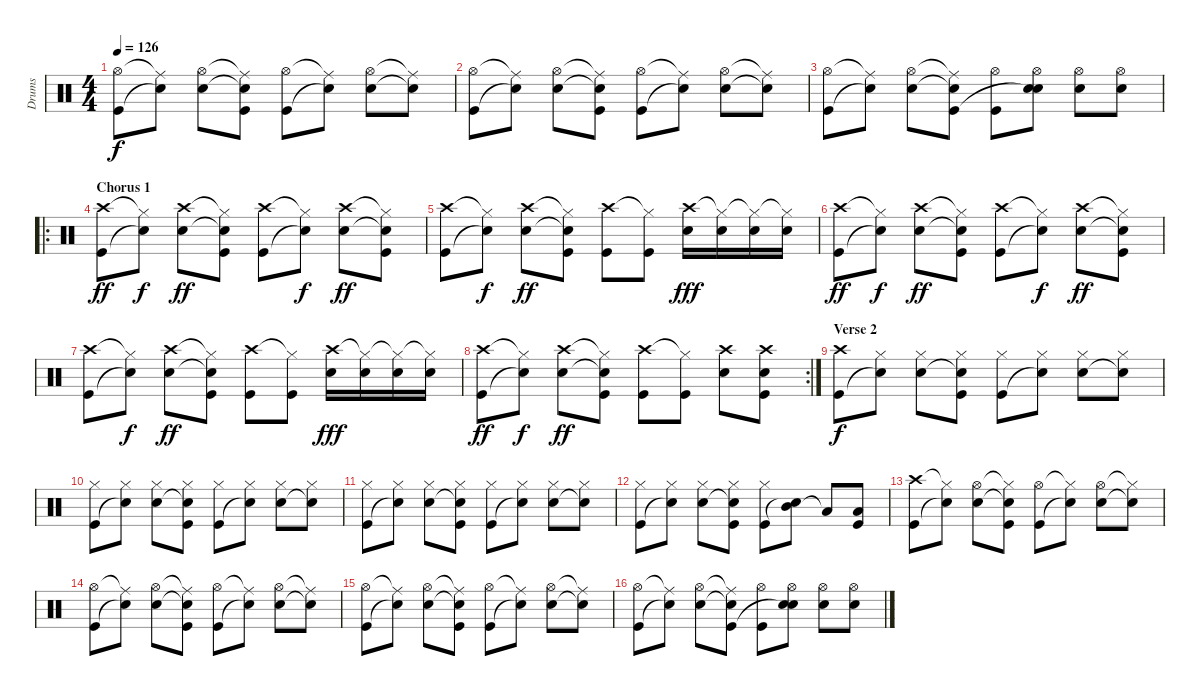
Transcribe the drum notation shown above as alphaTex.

\track ("Drums" "Drums") {instrument percussion}
\staff {score}
\articulation defaults
\ts (4 4)
\tempo 126
\clef neutral
\ks c
("Hi-Hat (open)" "Kick (hit)").8{dy f} ("Ride (middle)"{t} "Snare (hit)"{t}).8 ("Hi-Hat (open)" "Electric Snare (hit)").8 ("Ride (middle)"{t} "Snare (hit)"{t} "Kick (hit)").8 ("Hi-Hat (open)" "Kick (hit)").8 ("Ride (middle)"{t} "Snare (hit)"{t}).8 ("Hi-Hat (open)" "Electric Snare (hit)").8 ("Ride (middle)"{t} "Snare (hit)"{t}).8 |
("Hi-Hat (open)" "Kick (hit)").8 ("Ride (middle)"{t} "Snare (hit)"{t}).8 ("Hi-Hat (open)" "Electric Snare (hit)").8 ("Ride (middle)"{t} "Snare (hit)"{t} "Kick (hit)").8 ("Hi-Hat (open)" "Kick (hit)").8 ("Ride (middle)"{t} "Snare (hit)"{t}).8 ("Hi-Hat (open)" "Electric Snare (hit)").8 ("Ride (middle)"{t} "Snare (hit)"{t}).8 |
("Hi-Hat (open)" "Kick (hit)").8 ("Ride (middle)"{t} "Snare (hit)"{t}).8 ("Hi-Hat (open)" "Electric Snare (hit)").8 ("Ride (middle)"{t} "Snare (hit)"{t} "Kick (hit)").8 ("Hi-Hat (open)" "Kick (hit)").8 ("Hi-Hat (open)" "Electric Snare (hit)" "Snare (hit)"{t}).8 ("Hi-Hat (open)" "Electric Snare (hit)").8 ("Hi-Hat (open)" "Electric Snare (hit)").8 |
\ro
\section ("" "Chorus 1")
("Crash high (hit)" "Kick (hit)").8{dy ff} ("Hi-Hat (closed)"{t} "Snare (hit)"{t}).8{dy f} ("Crash high (hit)" "Electric Snare (hit)").8{dy ff} ("Hi-Hat (closed)"{t} "Snare (hit)"{t} "Kick (hit)").8 ("Crash high (hit)" "Kick (hit)").8 ("Hi-Hat (closed)"{t} "Snare (hit)"{t}).8{dy f} ("Crash high (hit)" "Electric Snare (hit)").8{dy ff} ("Hi-Hat (closed)"{t} "Snare (hit)"{t} "Kick (hit)").8 |
("Crash high (hit)" "Kick (hit)").8 ("Hi-Hat (closed)"{t} "Snare (hit)"{t}).8{dy f} ("Crash high (hit)" "Electric Snare (hit)").8{dy ff} ("Hi-Hat (closed)"{t} "Snare (hit)"{t} "Kick (hit)").8 ("Crash high (hit)" "Kick (hit)").8 ("Hi-Hat (closed)"{t} "Kick (hit)").8 ("Crash high (hit)" "Electric Snare (hit)").16{dy fff} ("Hi-Hat (closed)"{t} "Electric Snare (hit)").16 ("Hi-Hat (closed)"{t} "Electric Snare (hit)").16 ("Hi-Hat (closed)"{t} "Electric Snare (hit)").16 |
("Crash high (hit)" "Kick (hit)").8{dy ff} ("Hi-Hat (closed)"{t} "Snare (hit)"{t}).8{dy f} ("Crash high (hit)" "Electric Snare (hit)").8{dy ff} ("Hi-Hat (closed)"{t} "Snare (hit)"{t} "Kick (hit)").8 ("Crash high (hit)" "Kick (hit)").8 ("Hi-Hat (closed)"{t} "Snare (hit)"{t}).8{dy f} ("Crash high (hit)" "Electric Snare (hit)").8{dy ff} ("Hi-Hat (closed)"{t} "Snare (hit)"{t} "Kick (hit)").8 |
("Crash high (hit)" "Kick (hit)").8 ("Hi-Hat (closed)"{t} "Snare (hit)"{t}).8{dy f} ("Crash high (hit)" "Electric Snare (hit)").8{dy ff} ("Hi-Hat (closed)"{t} "Snare (hit)"{t} "Kick (hit)").8 ("Crash high (hit)" "Kick (hit)").8 ("Hi-Hat (closed)"{t} "Kick (hit)").8 ("Crash high (hit)" "Electric Snare (hit)").16{dy fff} ("Hi-Hat (closed)"{t} "Electric Snare (hit)").16 ("Hi-Hat (closed)"{t} "Electric Snare (hit)").16 ("Hi-Hat (closed)"{t} "Electric Snare (hit)").16 |
\rc 2
("Crash high (hit)" "Kick (hit)").8{dy ff} ("Hi-Hat (closed)"{t} "Snare (hit)"{t}).8{dy f} ("Crash high (hit)" "Electric Snare (hit)").8{dy ff} ("Hi-Hat (closed)"{t} "Snare (hit)"{t} "Kick (hit)").8 ("Crash high (hit)" "Kick (hit)").8 ("Hi-Hat (closed)"{t} "Kick (hit)").8 ("Crash high (hit)" "Electric Snare (hit)").8 ("Crash high (hit)" "Electric Snare (hit)" "Kick (hit)").8 |
\section ("" "Verse 2")
("Crash high (hit)" "Kick (hit)").8{dy f} ("Hi-Hat (closed)" "Snare (hit)"{t}).8 ("Hi-Hat (closed)" "Electric Snare (hit)").8 ("Hi-Hat (closed)" "Snare (hit)"{t} "Kick (hit)").8 ("Hi-Hat (closed)" "Kick (hit)").8 ("Hi-Hat (closed)" "Snare (hit)"{t}).8 ("Hi-Hat (closed)" "Electric Snare (hit)").8 ("Hi-Hat (closed)" "Snare (hit)"{t}).8 |
("Hi-Hat (closed)" "Kick (hit)").8 ("Hi-Hat (closed)" "Snare (hit)"{t}).8 ("Hi-Hat (closed)" "Electric Snare (hit)").8 ("Hi-Hat (closed)" "Snare (hit)"{t} "Kick (hit)").8 ("Hi-Hat (closed)" "Kick (hit)").8 ("Hi-Hat (closed)" "Snare (hit)"{t}).8 ("Hi-Hat (closed)" "Electric Snare (hit)").8 ("Hi-Hat (closed)" "Snare (hit)"{t}).8 |
("Hi-Hat (closed)" "Kick (hit)").8 ("Hi-Hat (closed)" "Snare (hit)"{t}).8 ("Hi-Hat (closed)" "Electric Snare (hit)").8 ("Hi-Hat (closed)" "Snare (hit)"{t} "Kick (hit)").8 ("Hi-Hat (closed)" "Kick (hit)").8 ("Hi-Hat (closed)" "Snare (hit)"{t}).8 ("Hi-Hat (closed)" "Electric Snare (hit)").8 ("Hi-Hat (closed)" "Snare (hit)"{t}).8 |
("Hi-Hat (closed)" "Kick (hit)").8 ("Hi-Hat (closed)" "Snare (hit)"{t}).8 ("Hi-Hat (closed)" "Electric Snare (hit)").8 ("Hi-Hat (closed)" "Snare (hit)"{t} "Kick (hit)").8 ("Hi-Hat (closed)" "Kick (hit)").8 ("Mid Tom (hit)" "Snare (hit)"{t}).8 "Low Tom (hit)"{t}.8 ("Low Tom (hit)" "Kick (hit)").8 |
("Crash high (hit)" "Kick (hit)").8 ("Hi-Hat (closed)"{t} "Snare (hit)"{t}).8 ("Hi-Hat (open)" "Electric Snare (hit)").8 ("Hi-Hat (closed)"{t} "Snare (hit)"{t} "Kick (hit)").8 ("Hi-Hat (open)" "Kick (hit)").8 ("Hi-Hat (closed)"{t} "Snare (hit)"{t}).8 ("Hi-Hat (open)" "Electric Snare (hit)").8 ("Hi-Hat (closed)"{t} "Snare (hit)"{t}).8 |
("Hi-Hat (open)" "Kick (hit)").8 ("Ride (middle)"{t} "Snare (hit)"{t}).8 ("Hi-Hat (open)" "Electric Snare (hit)").8 ("Ride (middle)"{t} "Snare (hit)"{t} "Kick (hit)").8 ("Hi-Hat (open)" "Kick (hit)").8 ("Ride (middle)"{t} "Snare (hit)"{t}).8 ("Hi-Hat (open)" "Electric Snare (hit)").8 ("Ride (middle)"{t} "Snare (hit)"{t}).8 |
("Hi-Hat (open)" "Kick (hit)").8 ("Ride (middle)"{t} "Snare (hit)"{t}).8 ("Hi-Hat (open)" "Electric Snare (hit)").8 ("Ride (middle)"{t} "Snare (hit)"{t} "Kick (hit)").8 ("Hi-Hat (open)" "Kick (hit)").8 ("Ride (middle)"{t} "Snare (hit)"{t}).8 ("Hi-Hat (open)" "Electric Snare (hit)").8 ("Ride (middle)"{t} "Snare (hit)"{t}).8 |
("Hi-Hat (open)" "Kick (hit)").8 ("Ride (middle)"{t} "Snare (hit)"{t}).8 ("Hi-Hat (open)" "Electric Snare (hit)").8 ("Ride (middle)"{t} "Snare (hit)"{t} "Kick (hit)").8 ("Hi-Hat (open)" "Kick (hit)").8 ("Hi-Hat (open)" "Electric Snare (hit)" "Snare (hit)"{t}).8 ("Hi-Hat (open)" "Electric Snare (hit)").8 ("Hi-Hat (open)" "Electric Snare (hit)").8
